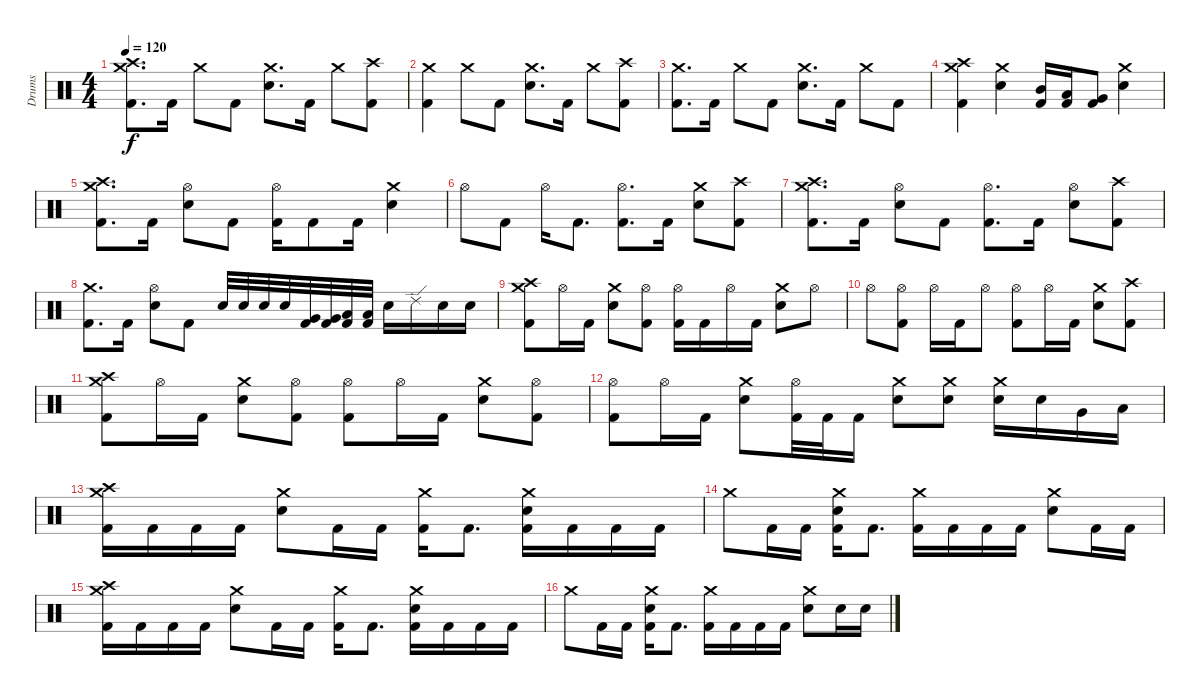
\track ("Drums" "Drums") {instrument percussion}
\staff {score}
\articulation defaults
\ts (4 4)
\tempo 120
\clef neutral
\ks c
("Crash medium (hit)" "Crash high (hit)" "Kick (hit) 2").8{d dy f} "Kick (hit) 2".16 "Crash medium (hit)".8 "Kick (hit) 2".8 ("Crash medium (hit)" "Electric Snare (hit)").8{d} "Kick (hit) 2".16 "Crash medium (hit)".8 ("Crash high (hit)" "Kick (hit) 2").8 |
("Crash medium (hit)" "Kick (hit) 2").4 "Crash medium (hit)".8 "Kick (hit) 2".8 ("Crash medium (hit)" "Electric Snare (hit)").8{d} "Kick (hit) 2".16 "Crash medium (hit)".8 ("Crash high (hit)" "Kick (hit) 2").8 |
("Crash medium (hit)" "Kick (hit) 2").8{d} "Kick (hit) 2".16 "Crash medium (hit)".8 "Kick (hit) 2".8 ("Crash medium (hit)" "Electric Snare (hit)").8{d} "Kick (hit) 2".16 "Crash medium (hit)".8 "Kick (hit) 2".8 |
("Crash medium (hit)" "Crash high (hit)" "Kick (hit) 2").4 ("Crash medium (hit)" "Electric Snare (hit)").4 ("Mid Tom (hit)" "Kick (hit) 2").16 ("Low Tom (hit)" "Kick (hit) 2").16 ("Very Low Tom (hit)" "Kick (hit) 2").8 ("Crash medium (hit)" "Electric Snare (hit)").4 |
("Crash medium (hit)" "Crash high (hit)" "Kick (hit) 2").8{d} "Kick (hit) 2".16 ("Hi-Hat (open)" "Electric Snare (hit)").8 "Kick (hit) 2".8 ("Hi-Hat (open)" "Kick (hit) 2").16 "Kick (hit) 2".8 "Kick (hit) 2".16 ("Crash medium (hit)" "Electric Snare (hit)").4 |
"Hi-Hat (open)".8 "Kick (hit) 2".8 "Hi-Hat (open)".16 "Kick (hit) 2".8{d} ("Hi-Hat (open)" "Kick (hit) 2").8{d} "Kick (hit) 2".16 ("Crash medium (hit)" "Electric Snare (hit)").8 ("Crash high (hit)" "Kick (hit) 2").8 |
("Crash medium (hit)" "Crash high (hit)" "Kick (hit) 2").8{d} "Kick (hit) 2".16 ("Hi-Hat (open)" "Electric Snare (hit)").8 "Kick (hit) 2".8 ("Hi-Hat (open)" "Kick (hit) 2").8{d} "Kick (hit) 2".16 ("Hi-Hat (open)" "Electric Snare (hit)").8 ("Crash high (hit)" "Kick (hit) 2").8 |
("Crash medium (hit)" "Kick (hit) 2").8{d} "Kick (hit) 2".16 ("Hi-Hat (open)" "Electric Snare (hit)").8 "Kick (hit) 2".8 "Electric Snare (hit)".32 "Electric Snare (hit)".32 "Electric Snare (hit)".32 "Electric Snare (hit)".32 ("Very Low Tom (hit)" "Kick (hit) 2").32 ("Very Low Tom (hit)" "Kick (hit) 2").32 ("Low Floor Tom (hit)" "Kick (hit) 2").32 ("Low Floor Tom (hit)" "Kick (hit) 2").32 "Electric Snare (hit)".16 "Ride (edge) 2".16 "Electric Snare (hit)".16 "Electric Snare (hit)".16 |
("Crash medium (hit)" "Crash high (hit)" "Kick (hit) 2").8 "Hi-Hat (open)".16 "Kick (hit) 2".16 ("Crash medium (hit)" "Electric Snare (hit)").8 ("Hi-Hat (open)" "Kick (hit) 2").8 ("Hi-Hat (open)" "Kick (hit) 2").16 "Kick (hit) 2".16 "Hi-Hat (open)".16 "Kick (hit) 2".16 ("Crash medium (hit)" "Electric Snare (hit)").8 "Hi-Hat (open)".8 |
"Hi-Hat (open)".8 ("Hi-Hat (open)" "Kick (hit) 2").8 "Hi-Hat (open)".16 "Kick (hit) 2".16 "Hi-Hat (open)".8 ("Hi-Hat (open)" "Kick (hit) 2").8 "Hi-Hat (open)".16 "Kick (hit) 2".16 ("Crash medium (hit)" "Electric Snare (hit)").8 ("Crash high (hit)" "Kick (hit) 2").8 |
("Crash medium (hit)" "Crash high (hit)" "Kick (hit) 2").8 "Hi-Hat (open)".16 "Kick (hit) 2".16 ("Crash medium (hit)" "Electric Snare (hit)").8 ("Hi-Hat (open)" "Kick (hit) 2").8 ("Hi-Hat (open)" "Kick (hit) 2").8 "Hi-Hat (open)".16 "Kick (hit) 2".16 ("Crash medium (hit)" "Electric Snare (hit)").8 ("Hi-Hat (open)" "Kick (hit) 2").8 |
("Hi-Hat (open)" "Kick (hit) 2").8 "Hi-Hat (open)".16 "Kick (hit) 2".16 ("Crash medium (hit)" "Electric Snare (hit)").8 ("Hi-Hat (open)" "Kick (hit) 2").32 "Kick (hit) 2".32 "Kick (hit) 2".16 ("Crash medium (hit)" "Electric Snare (hit)").8 ("Crash medium (hit)" "Electric Snare (hit)").8 ("Crash medium (hit)" "Electric Snare (hit)").16 "Electric Snare (hit)".16 "Very Low Tom (hit)".16 "Low Floor Tom (hit)".16 |
("Crash medium (hit)" "Crash high (hit)" "Kick (hit) 2").16 "Kick (hit) 2".16 "Kick (hit) 2".16 "Kick (hit) 2".16 ("Crash medium (hit)" "Electric Snare (hit)").8 "Kick (hit) 2".16 "Kick (hit) 2".16 ("Crash medium (hit)" "Kick (hit) 2").16 "Kick (hit) 2".8{d} ("Crash medium (hit)" "Electric Snare (hit)" "Kick (hit) 2").16 "Kick (hit) 2".16 "Kick (hit) 2".16 "Kick (hit) 2".16 |
"Crash medium (hit)".8 "Kick (hit) 2".16 "Kick (hit) 2".16 ("Crash medium (hit)" "Electric Snare (hit)" "Kick (hit) 2").16 "Kick (hit) 2".8{d} ("Crash medium (hit)" "Kick (hit) 2").16 "Kick (hit) 2".16 "Kick (hit) 2".16 "Kick (hit) 2".16 ("Crash medium (hit)" "Electric Snare (hit)").8 "Kick (hit) 2".16 "Kick (hit) 2".16 |
("Crash medium (hit)" "Crash high (hit)" "Kick (hit) 2").16 "Kick (hit) 2".16 "Kick (hit) 2".16 "Kick (hit) 2".16 ("Crash medium (hit)" "Electric Snare (hit)").8 "Kick (hit) 2".16 "Kick (hit) 2".16 ("Crash medium (hit)" "Kick (hit) 2").16 "Kick (hit) 2".8{d} ("Crash medium (hit)" "Electric Snare (hit)" "Kick (hit) 2").16 "Kick (hit) 2".16 "Kick (hit) 2".16 "Kick (hit) 2".16 |
"Crash medium (hit)".8 "Kick (hit) 2".16 "Kick (hit) 2".16 ("Crash medium (hit)" "Electric Snare (hit)" "Kick (hit) 2").16 "Kick (hit) 2".8{d} ("Crash medium (hit)" "Kick (hit) 2").16 "Kick (hit) 2".16 "Kick (hit) 2".16 "Kick (hit) 2".16 ("Crash medium (hit)" "Electric Snare (hit)").8 "Electric Snare (hit)".16 "Electric Snare (hit)".16
